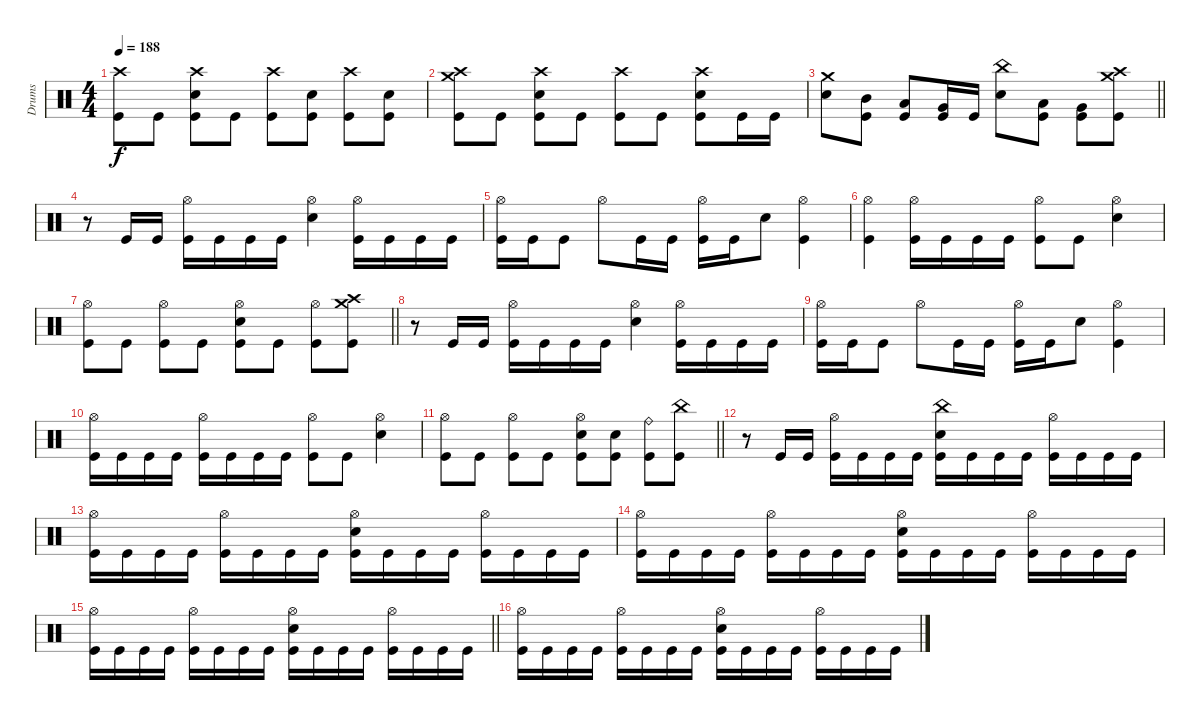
\track ("Drums" "Drums") {instrument percussion}
\staff
\articulation defaults
\ts (4 4)
\tempo 188
\clef neutral
\ks c
("Crash high (hit)" "Kick (hit)").8{dy f} "Kick (hit)".8 ("Crash high (hit)" "Electric Snare (hit)" "Kick (hit)").8 "Kick (hit)".8 ("Crash high (hit)" "Kick (hit)").8 ("Electric Snare (hit)" "Kick (hit)").8 ("Crash high (hit)" "Kick (hit)").8 ("Electric Snare (hit)" "Kick (hit)").8 |
("Crash high (hit)" "Crash medium (hit)" "Kick (hit)").8 "Kick (hit)".8 ("Crash high (hit)" "Electric Snare (hit)" "Kick (hit)").8 "Kick (hit)".8 ("Crash high (hit)" "Kick (hit)").8 "Kick (hit)".8 ("Crash high (hit)" "Electric Snare (hit)" "Kick (hit)").8 "Kick (hit)".16 "Kick (hit)".16 |
\barLineRight lightlight
("Crash medium (hit)" "Electric Snare (hit)").8 ("Mid Tom (hit)" "Kick (hit)").8 ("Low Tom (hit)" "Kick (hit)").8 ("Very Low Tom (hit)" "Kick (hit)").16 "Kick (hit)".16 ("China (hit)" "Electric Snare (hit)").8 ("Low Tom (hit)" "Kick (hit)").8 ("Very Low Tom (hit)" "Kick (hit)").8 ("Crash high (hit)" "Crash medium (hit)" "Kick (hit)").8 |
\section ("" "")
r.8 "Kick (hit)".16 "Kick (hit)".16 ("Hi-Hat (open)" "Kick (hit)").16 "Kick (hit)".16 "Kick (hit)".16 "Kick (hit)".16 ("Hi-Hat (open)" "Electric Snare (hit)").4 ("Hi-Hat (open)" "Kick (hit)").16 "Kick (hit)".16 "Kick (hit)".16 "Kick (hit)".16 |
("Hi-Hat (open)" "Kick (hit)").16 "Kick (hit)".16 "Kick (hit)".8 "Hi-Hat (open)".8 "Kick (hit)".16 "Kick (hit)".16 ("Hi-Hat (open)" "Kick (hit)").16 "Kick (hit)".16 "Electric Snare (hit)".8 ("Hi-Hat (open)" "Kick (hit)").4 |
("Hi-Hat (open)" "Kick (hit)").4 ("Hi-Hat (open)" "Kick (hit)").16 "Kick (hit)".16 "Kick (hit)".16 "Kick (hit)".16 ("Hi-Hat (open)" "Kick (hit)").8 "Kick (hit)".8 ("Hi-Hat (open)" "Electric Snare (hit)").4 |
\barLineRight lightlight
("Hi-Hat (open)" "Kick (hit)").8 "Kick (hit)".8 ("Hi-Hat (open)" "Kick (hit)").8 "Kick (hit)".8 ("Hi-Hat (open)" "Electric Snare (hit)" "Kick (hit)").8 "Kick (hit)".8 ("Hi-Hat (open)" "Kick (hit)").8 ("Crash high (hit)" "Crash medium (hit)" "Kick (hit)").8 |
r.8 "Kick (hit)".16 "Kick (hit)".16 ("Hi-Hat (open)" "Kick (hit)").16 "Kick (hit)".16 "Kick (hit)".16 "Kick (hit)".16 ("Hi-Hat (open)" "Electric Snare (hit)").4 ("Hi-Hat (open)" "Kick (hit)").16 "Kick (hit)".16 "Kick (hit)".16 "Kick (hit)".16 |
("Hi-Hat (open)" "Kick (hit)").16 "Kick (hit)".16 "Kick (hit)".8 "Hi-Hat (open)".8 "Kick (hit)".16 "Kick (hit)".16 ("Hi-Hat (open)" "Kick (hit)").16 "Kick (hit)".16 "Electric Snare (hit)".8 ("Hi-Hat (open)" "Kick (hit)").4 |
("Hi-Hat (open)" "Kick (hit)").16 "Kick (hit)".16 "Kick (hit)".16 "Kick (hit)".16 ("Hi-Hat (open)" "Kick (hit)").16 "Kick (hit)".16 "Kick (hit)".16 "Kick (hit)".16 ("Hi-Hat (open)" "Kick (hit)").8 "Kick (hit)".8 ("Hi-Hat (open)" "Electric Snare (hit)").4 |
\barLineRight lightlight
("Hi-Hat (open)" "Kick (hit)").8 "Kick (hit)".8 ("Hi-Hat (open)" "Kick (hit)").8 "Kick (hit)".8 ("Hi-Hat (open)" "Electric Snare (hit)" "Kick (hit)").8 ("Electric Snare (hit)" "Kick (hit)").8 ("Ride (bell)" "Kick (hit)").8 ("China (hit)" "Kick (hit)").8 |
r.8 "Kick (hit)".16 "Kick (hit)".16 ("Hi-Hat (open)" "Kick (hit)").16 "Kick (hit)".16 "Kick (hit)".16 "Kick (hit)".16 ("China (hit)" "Electric Snare (hit)" "Kick (hit)").16 "Kick (hit)".16 "Kick (hit)".16 "Kick (hit)".16 ("Hi-Hat (open)" "Kick (hit)").16 "Kick (hit)".16 "Kick (hit)".16 "Kick (hit)".16 |
("Hi-Hat (open)" "Kick (hit)").16 "Kick (hit)".16 "Kick (hit)".16 "Kick (hit)".16 ("Hi-Hat (open)" "Kick (hit)").16 "Kick (hit)".16 "Kick (hit)".16 "Kick (hit)".16 ("Hi-Hat (open)" "Electric Snare (hit)" "Kick (hit)").16 "Kick (hit)".16 "Kick (hit)".16 "Kick (hit)".16 ("Hi-Hat (open)" "Kick (hit)").16 "Kick (hit)".16 "Kick (hit)".16 "Kick (hit)".16 |
("Hi-Hat (open)" "Kick (hit)").16 "Kick (hit)".16 "Kick (hit)".16 "Kick (hit)".16 ("Hi-Hat (open)" "Kick (hit)").16 "Kick (hit)".16 "Kick (hit)".16 "Kick (hit)".16 ("Hi-Hat (open)" "Electric Snare (hit)" "Kick (hit)").16 "Kick (hit)".16 "Kick (hit)".16 "Kick (hit)".16 ("Hi-Hat (open)" "Kick (hit)").16 "Kick (hit)".16 "Kick (hit)".16 "Kick (hit)".16 |
\barLineRight lightlight
("Hi-Hat (open)" "Kick (hit)").16 "Kick (hit)".16 "Kick (hit)".16 "Kick (hit)".16 ("Hi-Hat (open)" "Kick (hit)").16 "Kick (hit)".16 "Kick (hit)".16 "Kick (hit)".16 ("Hi-Hat (open)" "Electric Snare (hit)" "Kick (hit)").16 "Kick (hit)".16 "Kick (hit)".16 "Kick (hit)".16 ("Hi-Hat (open)" "Kick (hit)").16 "Kick (hit)".16 "Kick (hit)".16 "Kick (hit)".16 |
("Hi-Hat (open)" "Kick (hit)").16 "Kick (hit)".16 "Kick (hit)".16 "Kick (hit)".16 ("Hi-Hat (open)" "Kick (hit)").16 "Kick (hit)".16 "Kick (hit)".16 "Kick (hit)".16 ("Hi-Hat (open)" "Electric Snare (hit)" "Kick (hit)").16 "Kick (hit)".16 "Kick (hit)".16 "Kick (hit)".16 ("Hi-Hat (open)" "Kick (hit)").16 "Kick (hit)".16 "Kick (hit)".16 "Kick (hit)".16
